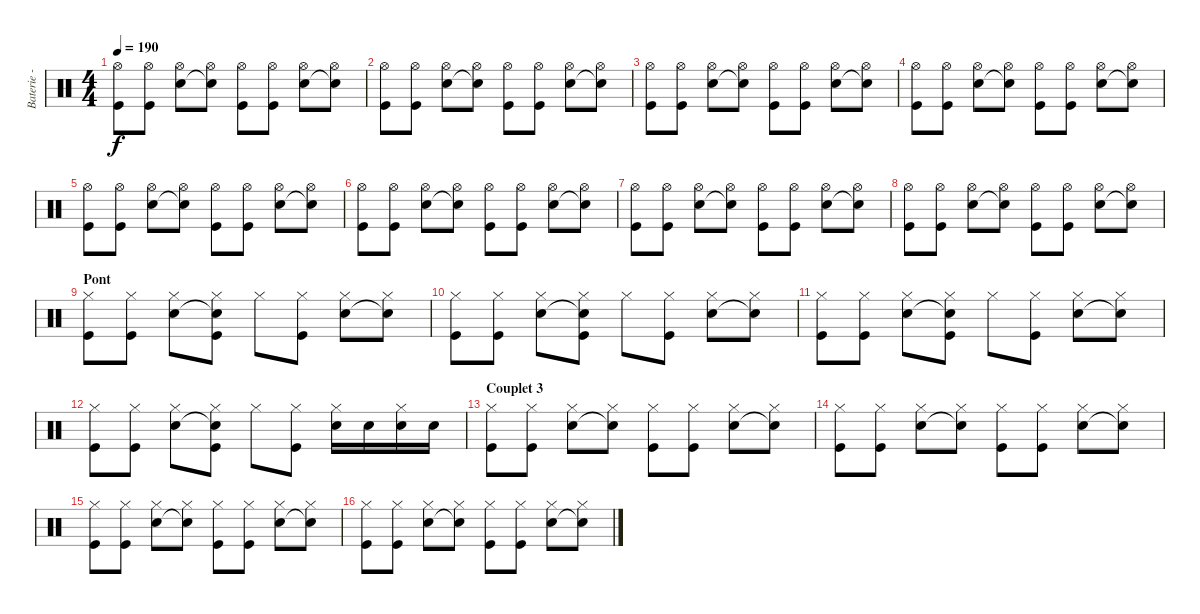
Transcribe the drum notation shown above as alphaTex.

\track ("Baterie - Guillaume" "Baterie - ") {instrument percussion}
\staff {score}
\articulation defaults
\ts (4 4)
\tempo 190
\clef neutral
\ks c
("Hi-Hat (open)" "Kick (hit)").8{dy f} ("Hi-Hat (open)" "Kick (hit)").8 ("Hi-Hat (open)" "Electric Snare (hit)").8 ("Hi-Hat (open)" "Snare (hit)"{t}).8 ("Hi-Hat (open)" "Kick (hit)").8 ("Hi-Hat (open)" "Kick (hit)").8 ("Hi-Hat (open)" "Electric Snare (hit)").8 ("Hi-Hat (open)" "Snare (hit)"{t}).8 |
("Hi-Hat (open)" "Kick (hit)").8 ("Hi-Hat (open)" "Kick (hit)").8 ("Hi-Hat (open)" "Electric Snare (hit)").8 ("Hi-Hat (open)" "Snare (hit)"{t}).8 ("Hi-Hat (open)" "Kick (hit)").8 ("Hi-Hat (open)" "Kick (hit)").8 ("Hi-Hat (open)" "Electric Snare (hit)").8 ("Hi-Hat (open)" "Snare (hit)"{t}).8 |
("Hi-Hat (open)" "Kick (hit)").8 ("Hi-Hat (open)" "Kick (hit)").8 ("Hi-Hat (open)" "Electric Snare (hit)").8 ("Hi-Hat (open)" "Snare (hit)"{t}).8 ("Hi-Hat (open)" "Kick (hit)").8 ("Hi-Hat (open)" "Kick (hit)").8 ("Hi-Hat (open)" "Electric Snare (hit)").8 ("Hi-Hat (open)" "Snare (hit)"{t}).8 |
("Hi-Hat (open)" "Kick (hit)").8 ("Hi-Hat (open)" "Kick (hit)").8 ("Hi-Hat (open)" "Electric Snare (hit)").8 ("Hi-Hat (open)" "Snare (hit)"{t}).8 ("Hi-Hat (open)" "Kick (hit)").8 ("Hi-Hat (open)" "Kick (hit)").8 ("Hi-Hat (open)" "Electric Snare (hit)").8 ("Hi-Hat (open)" "Snare (hit)"{t}).8 |
("Hi-Hat (open)" "Kick (hit)").8 ("Hi-Hat (open)" "Kick (hit)").8 ("Hi-Hat (open)" "Electric Snare (hit)").8 ("Hi-Hat (open)" "Snare (hit)"{t}).8 ("Hi-Hat (open)" "Kick (hit)").8 ("Hi-Hat (open)" "Kick (hit)").8 ("Hi-Hat (open)" "Electric Snare (hit)").8 ("Hi-Hat (open)" "Snare (hit)"{t}).8 |
("Hi-Hat (open)" "Kick (hit)").8 ("Hi-Hat (open)" "Kick (hit)").8 ("Hi-Hat (open)" "Electric Snare (hit)").8 ("Hi-Hat (open)" "Snare (hit)"{t}).8 ("Hi-Hat (open)" "Kick (hit)").8 ("Hi-Hat (open)" "Kick (hit)").8 ("Hi-Hat (open)" "Electric Snare (hit)").8 ("Hi-Hat (open)" "Snare (hit)"{t}).8 |
("Hi-Hat (open)" "Kick (hit)").8 ("Hi-Hat (open)" "Kick (hit)").8 ("Hi-Hat (open)" "Electric Snare (hit)").8 ("Hi-Hat (open)" "Snare (hit)"{t}).8 ("Hi-Hat (open)" "Kick (hit)").8 ("Hi-Hat (open)" "Kick (hit)").8 ("Hi-Hat (open)" "Electric Snare (hit)").8 ("Hi-Hat (open)" "Snare (hit)"{t}).8 |
("Hi-Hat (open)" "Kick (hit)").8 ("Hi-Hat (open)" "Kick (hit)").8 ("Hi-Hat (open)" "Electric Snare (hit)").8 ("Hi-Hat (open)" "Snare (hit)"{t}).8 ("Hi-Hat (open)" "Kick (hit)").8 ("Hi-Hat (open)" "Kick (hit)").8 ("Hi-Hat (open)" "Electric Snare (hit)").8 ("Hi-Hat (open)" "Snare (hit)"{t}).8 |
\section ("" "Pont")
("Hi-Hat (closed)" "Kick (hit)").8 ("Hi-Hat (closed)" "Kick (hit)").8 ("Hi-Hat (closed)" "Electric Snare (hit)").8 ("Hi-Hat (closed)" "Snare (hit)"{t} "Kick (hit)").8 "Hi-Hat (closed)".8 ("Hi-Hat (closed)" "Kick (hit)").8 ("Hi-Hat (closed)" "Electric Snare (hit)").8 ("Hi-Hat (closed)" "Snare (hit)"{t}).8 |
("Hi-Hat (closed)" "Kick (hit)").8 ("Hi-Hat (closed)" "Kick (hit)").8 ("Hi-Hat (closed)" "Electric Snare (hit)").8 ("Hi-Hat (closed)" "Snare (hit)"{t} "Kick (hit)").8 "Hi-Hat (closed)".8 ("Hi-Hat (closed)" "Kick (hit)").8 ("Hi-Hat (closed)" "Electric Snare (hit)").8 ("Hi-Hat (closed)" "Snare (hit)"{t}).8 |
("Hi-Hat (closed)" "Kick (hit)").8 ("Hi-Hat (closed)" "Kick (hit)").8 ("Hi-Hat (closed)" "Electric Snare (hit)").8 ("Hi-Hat (closed)" "Snare (hit)"{t} "Kick (hit)").8 "Hi-Hat (closed)".8 ("Hi-Hat (closed)" "Kick (hit)").8 ("Hi-Hat (closed)" "Electric Snare (hit)").8 ("Hi-Hat (closed)" "Snare (hit)"{t}).8 |
("Hi-Hat (closed)" "Kick (hit)").8 ("Hi-Hat (closed)" "Kick (hit)").8 ("Hi-Hat (closed)" "Electric Snare (hit)").8 ("Hi-Hat (closed)" "Snare (hit)"{t} "Kick (hit)").8 "Hi-Hat (closed)".8 ("Hi-Hat (closed)" "Kick (hit)").8 ("Hi-Hat (closed)" "Electric Snare (hit)").16 "Electric Snare (hit)".16 ("Hi-Hat (closed)" "Electric Snare (hit)").16 "Electric Snare (hit)".16 |
\section ("" "Couplet 3")
("Hi-Hat (closed)" "Kick (hit)").8 ("Hi-Hat (closed)" "Kick (hit)").8 ("Hi-Hat (closed)" "Electric Snare (hit)").8 ("Hi-Hat (closed)" "Snare (hit)"{t}).8 ("Hi-Hat (closed)" "Kick (hit)").8 ("Hi-Hat (closed)" "Kick (hit)").8 ("Hi-Hat (closed)" "Electric Snare (hit)").8 ("Hi-Hat (closed)" "Snare (hit)"{t}).8 |
("Hi-Hat (closed)" "Kick (hit)").8 ("Hi-Hat (closed)" "Kick (hit)").8 ("Hi-Hat (closed)" "Electric Snare (hit)").8 ("Hi-Hat (closed)" "Snare (hit)"{t}).8 ("Hi-Hat (closed)" "Kick (hit)").8 ("Hi-Hat (closed)" "Kick (hit)").8 ("Hi-Hat (closed)" "Electric Snare (hit)").8 ("Hi-Hat (closed)" "Snare (hit)"{t}).8 |
("Hi-Hat (closed)" "Kick (hit)").8 ("Hi-Hat (closed)" "Kick (hit)").8 ("Hi-Hat (closed)" "Electric Snare (hit)").8 ("Hi-Hat (closed)" "Snare (hit)"{t}).8 ("Hi-Hat (closed)" "Kick (hit)").8 ("Hi-Hat (closed)" "Kick (hit)").8 ("Hi-Hat (closed)" "Electric Snare (hit)").8 ("Hi-Hat (closed)" "Snare (hit)"{t}).8 |
("Hi-Hat (closed)" "Kick (hit)").8 ("Hi-Hat (closed)" "Kick (hit)").8 ("Hi-Hat (closed)" "Electric Snare (hit)").8 ("Hi-Hat (closed)" "Snare (hit)"{t}).8 ("Hi-Hat (closed)" "Kick (hit)").8 ("Hi-Hat (closed)" "Kick (hit)").8 ("Hi-Hat (closed)" "Electric Snare (hit)").8 ("Hi-Hat (closed)" "Snare (hit)"{t}).8
